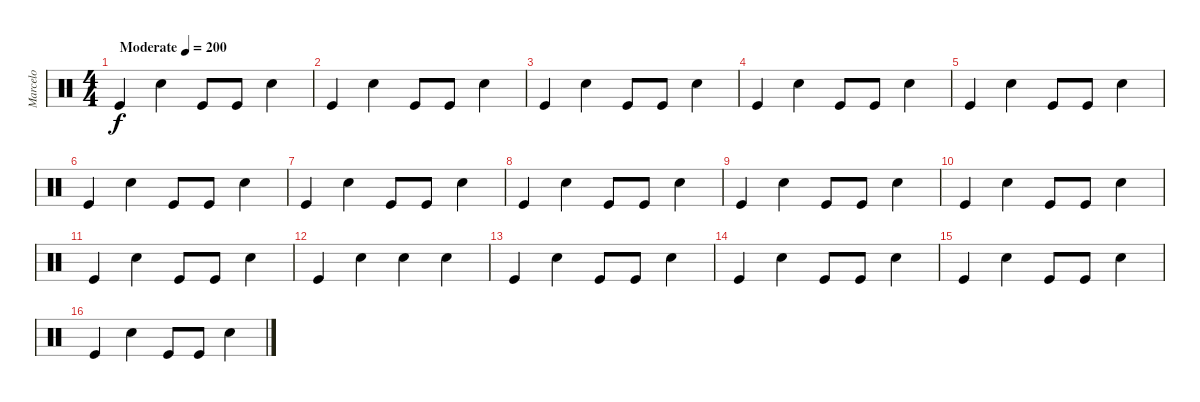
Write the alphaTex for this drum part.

\track ("Marcelo" "Marcelo") {instrument percussion}
\staff {score}
\articulation defaults
\ts (4 4)
\tempo (200 "Moderate")
\clef neutral
\ks c "Kick (hit)".4{dy f} "Snare (hit) 2".4 "Kick (hit)".8 "Kick (hit)".8 "Snare (hit) 2".4
|
"Kick (hit)".4 "Snare (hit) 2".4 "Kick (hit)".8 "Kick (hit)".8 "Snare (hit) 2".4 |
"Kick (hit)".4 "Snare (hit) 2".4 "Kick (hit)".8 "Kick (hit)".8 "Snare (hit) 2".4 |
"Kick (hit)".4 "Snare (hit) 2".4 "Kick (hit)".8 "Kick (hit)".8 "Snare (hit) 2".4 |
"Kick (hit)".4 "Snare (hit) 2".4 "Kick (hit)".8 "Kick (hit)".8 "Snare (hit) 2".4 |
"Kick (hit)".4 "Snare (hit) 2".4 "Kick (hit)".8 "Kick (hit)".8 "Snare (hit) 2".4 |
"Kick (hit)".4 "Snare (hit) 2".4 "Kick (hit)".8 "Kick (hit)".8 "Snare (hit) 2".4 |
"Kick (hit)".4 "Snare (hit) 2".4 "Kick (hit)".8 "Kick (hit)".8 "Snare (hit) 2".4 |
"Kick (hit)".4 "Snare (hit) 2".4 "Kick (hit)".8 "Kick (hit)".8 "Snare (hit) 2".4 |
"Kick (hit)".4 "Snare (hit) 2".4 "Kick (hit)".8 "Kick (hit)".8 "Snare (hit) 2".4 |
"Kick (hit)".4 "Snare (hit) 2".4 "Kick (hit)".8 "Kick (hit)".8 "Snare (hit) 2".4 |
"Kick (hit)".4 "Snare (hit) 2".4 "Snare (hit) 2".4 "Snare (hit) 2".4 |
"Kick (hit)".4 "Snare (hit) 2".4 "Kick (hit)".8 "Kick (hit)".8 "Snare (hit) 2".4 |
"Kick (hit)".4 "Snare (hit) 2".4 "Kick (hit)".8 "Kick (hit)".8 "Snare (hit) 2".4 |
"Kick (hit)".4 "Snare (hit) 2".4 "Kick (hit)".8 "Kick (hit)".8 "Snare (hit) 2".4 |
"Kick (hit)".4 "Snare (hit) 2".4 "Kick (hit)".8 "Kick (hit)".8 "Snare (hit) 2".4
